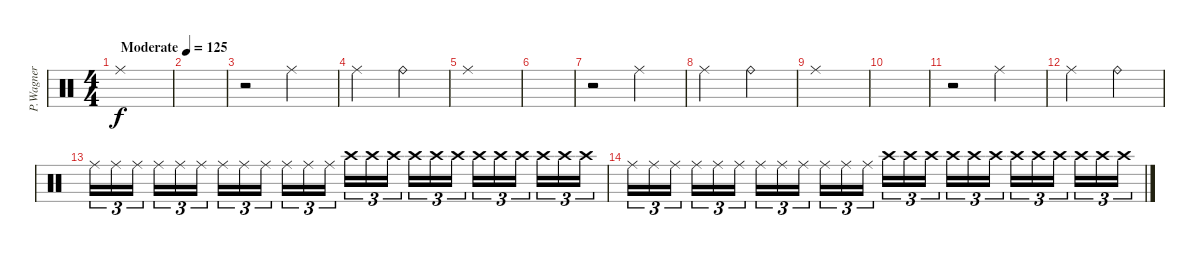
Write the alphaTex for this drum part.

\track ("P.Wagner" "P.Wagner") {instrument percussion}
\staff {score}
\articulation defaults
\ts (4 4)
\tempo (125 "Moderate")
\clef neutral
\ks c "Ride (middle)".1{dy f}
|
|
r.2 "Ride (middle)".2 |
"Ride (middle)".2 "Ride (bell)".2 |
"Ride (middle)".1 |
|
r.2 "Ride (middle)".2 |
"Ride (middle)".2 "Ride (bell)".2 |
"Ride (middle)".1 |
|
r.2 "Ride (middle)".2 |
"Ride (middle)".2 "Ride (bell)".2 |
"Ride (middle)".16{tu (3 2)} "Ride (middle)".16{tu (3 2)} "Ride (middle)".16{tu (3 2) beam splitsecondary} "Ride (middle)".16{tu (3 2)} "Ride (middle)".16{tu (3 2)} "Ride (middle)".16{tu (3 2)} "Ride (middle)".16{tu (3 2)} "Ride (middle)".16{tu (3 2)} "Ride (middle)".16{tu (3 2) beam splitsecondary} "Ride (middle)".16{tu (3 2)} "Ride (middle)".16{tu (3 2)} "Ride (middle)".16{tu (3 2)} "Crash high (hit)".16{tu (3 2)} "Crash high (hit)".16{tu (3 2)} "Crash high (hit)".16{tu (3 2) beam splitsecondary} "Crash high (hit)".16{tu (3 2)} "Crash high (hit)".16{tu (3 2)} "Crash high (hit)".16{tu (3 2)} "Crash high (hit)".16{tu (3 2)} "Crash high (hit)".16{tu (3 2)} "Crash high (hit)".16{tu (3 2) beam splitsecondary} "Crash high (hit)".16{tu (3 2)} "Crash high (hit)".16{tu (3 2)} "Crash high (hit)".16{tu (3 2)} |
"Ride (middle)".16{tu (3 2)} "Ride (middle)".16{tu (3 2)} "Ride (middle)".16{tu (3 2) beam splitsecondary} "Ride (middle)".16{tu (3 2)} "Ride (middle)".16{tu (3 2)} "Ride (middle)".16{tu (3 2)} "Ride (middle)".16{tu (3 2)} "Ride (middle)".16{tu (3 2)} "Ride (middle)".16{tu (3 2) beam splitsecondary} "Ride (middle)".16{tu (3 2)} "Ride (middle)".16{tu (3 2)} "Ride (middle)".16{tu (3 2)} "Crash high (hit)".16{tu (3 2)} "Crash high (hit)".16{tu (3 2)} "Crash high (hit)".16{tu (3 2) beam splitsecondary} "Crash high (hit)".16{tu (3 2)} "Crash high (hit)".16{tu (3 2)} "Crash high (hit)".16{tu (3 2)} "Crash high (hit)".16{tu (3 2)} "Crash high (hit)".16{tu (3 2)} "Crash high (hit)".16{tu (3 2) beam splitsecondary} "Crash high (hit)".16{tu (3 2)} "Crash high (hit)".16{tu (3 2)} "Crash high (hit)".16{tu (3 2)}
